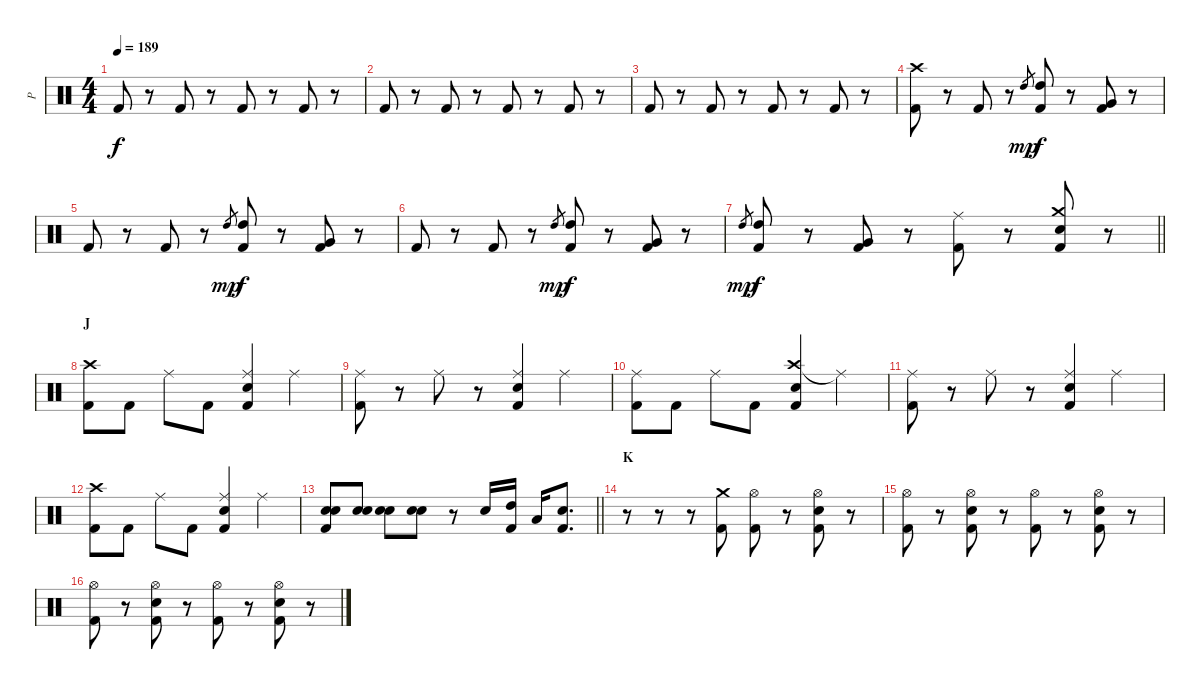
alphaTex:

\track ("P" "P") {instrument percussion}
\staff {score}
\articulation defaults
\ts (4 4)
\tempo 189
\clef neutral
\ks c "Kick (hit) 2".8{dy f}
r.8 "Kick (hit) 2".8 r.8 "Kick (hit) 2".8 r.8 "Kick (hit) 2".8 r.8 |
"Kick (hit) 2".8 r.8 "Kick (hit) 2".8 r.8 "Kick (hit) 2".8 r.8 "Kick (hit) 2".8 r.8 |
"Kick (hit) 2".8 r.8 "Kick (hit) 2".8 r.8 "Kick (hit) 2".8 r.8 "Kick (hit) 2".8 r.8 |
("Crash high (hit)" "Kick (hit) 2").8 r.8 "Kick (hit) 2".8 r.8 "High Tom (hit)".8{gr dy mp} ("High Tom (hit)" "Kick (hit) 2").8{dy f} r.8 ("Very Low Tom (hit)" "Kick (hit) 2").8 r.8 |
"Kick (hit) 2".8 r.8 "Kick (hit) 2".8 r.8 "High Tom (hit)".8{gr dy mp} ("High Tom (hit)" "Kick (hit) 2").8{dy f} r.8 ("Very Low Tom (hit)" "Kick (hit) 2").8 r.8 |
"Kick (hit) 2".8 r.8 "Kick (hit) 2".8 r.8 "High Tom (hit)".8{gr dy mp} ("High Tom (hit)" "Kick (hit) 2").8{dy f} r.8 ("Very Low Tom (hit)" "Kick (hit) 2").8 r.8 |
\barLineRight lightlight "High Tom (hit)".8{gr dy mp}
("High Tom (hit)" "Kick (hit) 2").8{dy f} r.8 ("Very Low Tom (hit)" "Kick (hit) 2").8 r.8 ("Ride (middle)" "Kick (hit) 2").8 r.8 ("Crash medium (hit)" "Electric Snare (hit)" "Kick (hit) 2").8 r.8 |
\section ("" "J")
("Crash high (hit)" "Kick (hit) 2").8 "Kick (hit) 2".8 "Ride (middle)".8 "Kick (hit) 2".8 ("Ride (middle)" "Electric Snare (hit)" "Kick (hit) 2").4 "Ride (middle)".4 |
("Ride (middle)" "Kick (hit) 2").8 r.8 "Ride (middle)".8 r.8 ("Ride (middle)" "Electric Snare (hit)" "Kick (hit) 2").4 "Ride (middle)".4 |
("Ride (middle)" "Kick (hit) 2").8 "Kick (hit) 2".8 "Ride (middle)".8 "Kick (hit) 2".8 ("Crash high (hit)" "Electric Snare (hit)" "Kick (hit) 2").4 "Ride (middle)"{t}.4 |
("Ride (middle)" "Kick (hit) 2").8 r.8 "Ride (middle)".8 r.8 ("Ride (middle)" "Electric Snare (hit)" "Kick (hit) 2").4 "Ride (middle)".4 |
("Crash high (hit)" "Kick (hit) 2").8 "Kick (hit) 2".8 "Ride (middle)".8 "Kick (hit) 2".8 ("Ride (middle)" "Electric Snare (hit)" "Kick (hit) 2").4 "Ride (middle)".4 |
\barLineRight lightlight
("Electric Snare (hit)" "Electric Snare (hit)" "Kick (hit) 2").8 ("Electric Snare (hit)" "Electric Snare (hit)").8 ("Electric Snare (hit)" "Electric Snare (hit)").8 ("Electric Snare (hit)" "Electric Snare (hit)").8 r.8 "Electric Snare (hit)".16 ("High Tom (hit)" "Kick (hit) 2").16 "Low Tom (hit)".16 ("Electric Snare (hit)" "Kick (hit) 2").8{d} |
\section ("" "K")
r.8 r.8 r.8 ("Crash medium (hit)" "Kick (hit) 2").8 ("Hi-Hat (open)" "Kick (hit) 2").8 r.8 ("Hi-Hat (open)" "Electric Snare (hit)" "Kick (hit) 2").8 r.8 |
("Hi-Hat (open)" "Kick (hit) 2").8 r.8 ("Hi-Hat (open)" "Electric Snare (hit)" "Kick (hit) 2").8 r.8 ("Hi-Hat (open)" "Kick (hit) 2").8 r.8 ("Hi-Hat (open)" "Electric Snare (hit)" "Kick (hit) 2").8 r.8 |
("Hi-Hat (open)" "Kick (hit) 2").8 r.8 ("Hi-Hat (open)" "Electric Snare (hit)" "Kick (hit) 2").8 r.8 ("Hi-Hat (open)" "Kick (hit) 2").8 r.8 ("Hi-Hat (open)" "Electric Snare (hit)" "Kick (hit) 2").8 r.8
